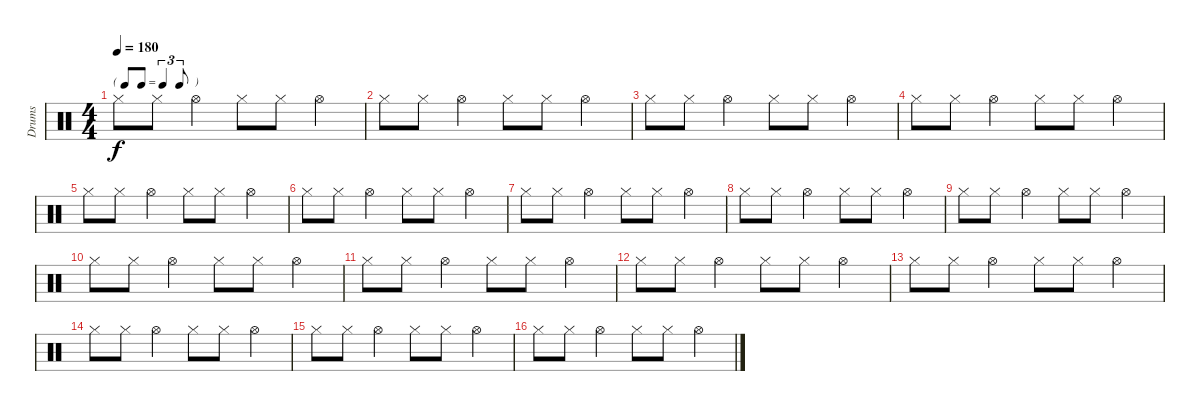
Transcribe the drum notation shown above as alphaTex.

\track ("Drums" "Drums") {instrument percussion}
\staff {score}
\articulation defaults
\ts (4 4)
\tf triplet8th
\tempo 180
\clef neutral
\ks c "Hi-Hat (closed)".8{dy f} "Hi-Hat (closed)".8 "Hi-Hat (open)".4 "Hi-Hat (closed)".8 "Hi-Hat (closed)".8 "Hi-Hat (open)".4
|
"Hi-Hat (closed)".8 "Hi-Hat (closed)".8 "Hi-Hat (open)".4 "Hi-Hat (closed)".8 "Hi-Hat (closed)".8 "Hi-Hat (open)".4 |
"Hi-Hat (closed)".8 "Hi-Hat (closed)".8 "Hi-Hat (open)".4 "Hi-Hat (closed)".8 "Hi-Hat (closed)".8 "Hi-Hat (open)".4 |
"Hi-Hat (closed)".8 "Hi-Hat (closed)".8 "Hi-Hat (open)".4 "Hi-Hat (closed)".8 "Hi-Hat (closed)".8 "Hi-Hat (open)".4 |
"Hi-Hat (closed)".8 "Hi-Hat (closed)".8 "Hi-Hat (open)".4 "Hi-Hat (closed)".8 "Hi-Hat (closed)".8 "Hi-Hat (open)".4 |
"Hi-Hat (closed)".8 "Hi-Hat (closed)".8 "Hi-Hat (open)".4 "Hi-Hat (closed)".8 "Hi-Hat (closed)".8 "Hi-Hat (open)".4 |
"Hi-Hat (closed)".8 "Hi-Hat (closed)".8 "Hi-Hat (open)".4 "Hi-Hat (closed)".8 "Hi-Hat (closed)".8 "Hi-Hat (open)".4 |
"Hi-Hat (closed)".8 "Hi-Hat (closed)".8 "Hi-Hat (open)".4 "Hi-Hat (closed)".8 "Hi-Hat (closed)".8 "Hi-Hat (open)".4 |
"Hi-Hat (closed)".8 "Hi-Hat (closed)".8 "Hi-Hat (open)".4 "Hi-Hat (closed)".8 "Hi-Hat (closed)".8 "Hi-Hat (open)".4 |
"Hi-Hat (closed)".8 "Hi-Hat (closed)".8 "Hi-Hat (open)".4 "Hi-Hat (closed)".8 "Hi-Hat (closed)".8 "Hi-Hat (open)".4 |
"Hi-Hat (closed)".8 "Hi-Hat (closed)".8 "Hi-Hat (open)".4 "Hi-Hat (closed)".8 "Hi-Hat (closed)".8 "Hi-Hat (open)".4 |
"Hi-Hat (closed)".8 "Hi-Hat (closed)".8 "Hi-Hat (open)".4 "Hi-Hat (closed)".8 "Hi-Hat (closed)".8 "Hi-Hat (open)".4 |
"Hi-Hat (closed)".8 "Hi-Hat (closed)".8 "Hi-Hat (open)".4 "Hi-Hat (closed)".8 "Hi-Hat (closed)".8 "Hi-Hat (open)".4 |
"Hi-Hat (closed)".8 "Hi-Hat (closed)".8 "Hi-Hat (open)".4 "Hi-Hat (closed)".8 "Hi-Hat (closed)".8 "Hi-Hat (open)".4 |
"Hi-Hat (closed)".8 "Hi-Hat (closed)".8 "Hi-Hat (open)".4 "Hi-Hat (closed)".8 "Hi-Hat (closed)".8 "Hi-Hat (open)".4 |
"Hi-Hat (closed)".8 "Hi-Hat (closed)".8 "Hi-Hat (open)".4 "Hi-Hat (closed)".8 "Hi-Hat (closed)".8 "Hi-Hat (open)".4
